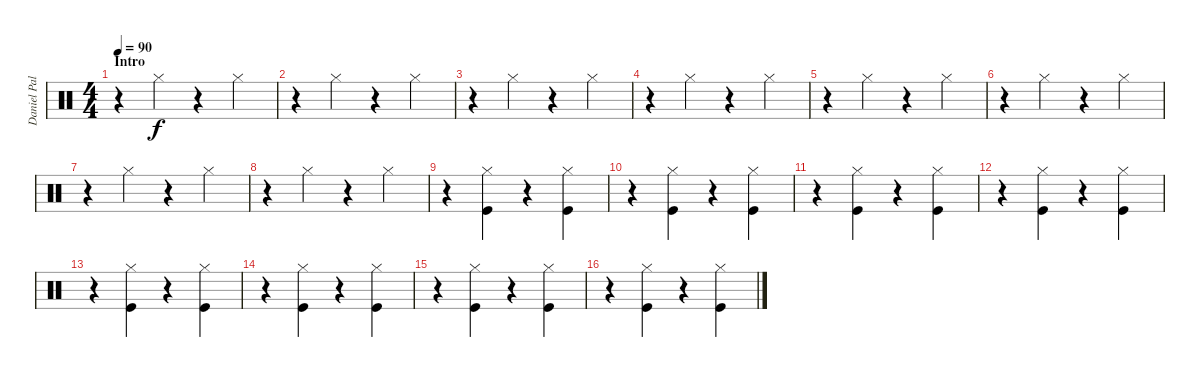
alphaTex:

\track ("Daniel Pal" "Daniel Pal") {instrument percussion}
\staff {score}
\articulation defaults
\ts (4 4)
\section ("" "Intro")
\tempo 90
\clef neutral
\ks c
r.4{dy f} "Hi-Hat (closed)".4 r.4 "Hi-Hat (closed)".4 |
r.4 "Hi-Hat (closed)".4 r.4 "Hi-Hat (closed)".4 |
r.4 "Hi-Hat (closed)".4 r.4 "Hi-Hat (closed)".4 |
r.4 "Hi-Hat (closed)".4 r.4 "Hi-Hat (closed)".4 |
r.4 "Hi-Hat (closed)".4 r.4 "Hi-Hat (closed)".4 |
r.4 "Hi-Hat (closed)".4 r.4 "Hi-Hat (closed)".4 |
r.4 "Hi-Hat (closed)".4 r.4 "Hi-Hat (closed)".4 |
r.4 "Hi-Hat (closed)".4 r.4 "Hi-Hat (closed)".4 |
r.4 ("Hi-Hat (closed)" "Kick (hit)").4 r.4 ("Hi-Hat (closed)" "Kick (hit)").4 |
r.4 ("Hi-Hat (closed)" "Kick (hit)").4 r.4 ("Hi-Hat (closed)" "Kick (hit)").4 |
r.4 ("Hi-Hat (closed)" "Kick (hit)").4 r.4 ("Hi-Hat (closed)" "Kick (hit)").4 |
r.4 ("Hi-Hat (closed)" "Kick (hit)").4 r.4 ("Hi-Hat (closed)" "Kick (hit)").4 |
r.4 ("Hi-Hat (closed)" "Kick (hit)").4 r.4 ("Hi-Hat (closed)" "Kick (hit)").4 |
r.4 ("Hi-Hat (closed)" "Kick (hit)").4 r.4 ("Hi-Hat (closed)" "Kick (hit)").4 |
r.4 ("Hi-Hat (closed)" "Kick (hit)").4 r.4 ("Hi-Hat (closed)" "Kick (hit)").4 |
r.4 ("Hi-Hat (closed)" "Kick (hit)").4 r.4 ("Hi-Hat (closed)" "Kick (hit)").4
